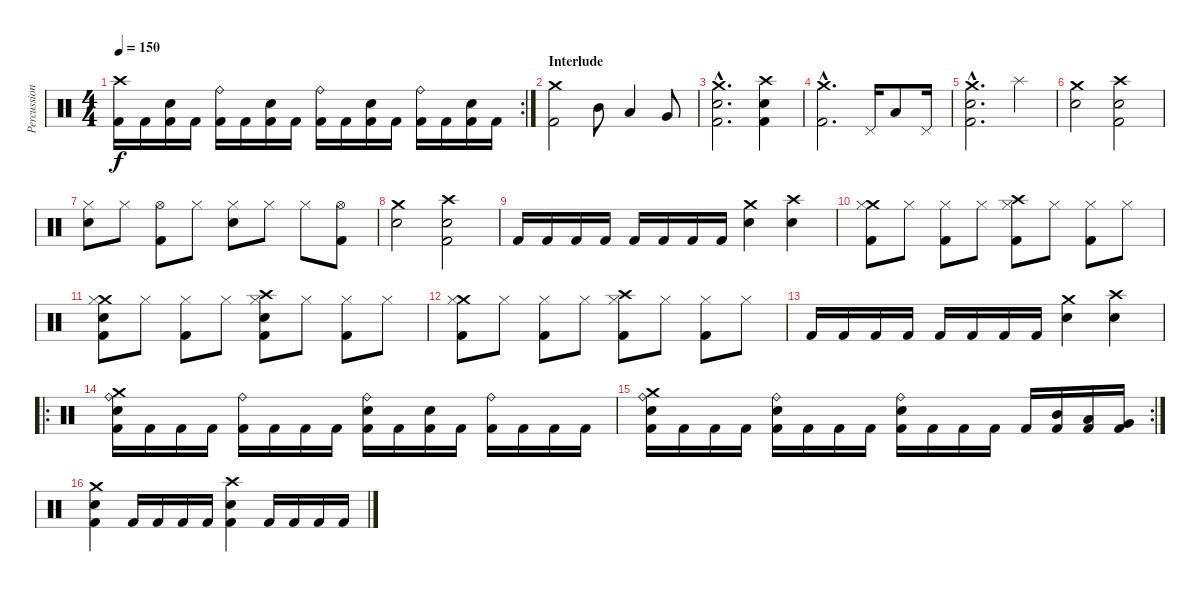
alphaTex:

\track ("Percussioni" "Percussion") {instrument percussion}
\staff {score}
\articulation defaults
\rc 2
\ts (4 4)
\tempo 150
\clef neutral
\ks c
("Crash high (hit)" "Kick (hit) 2").16{dy f} "Kick (hit) 2".16 ("Snare (hit) 2" "Kick (hit) 2").16 "Kick (hit) 2".16 ("Kick (hit) 2" "Ride (bell)").16 "Kick (hit) 2".16 ("Snare (hit) 2" "Kick (hit) 2").16 "Kick (hit) 2".16 ("Kick (hit) 2" "Ride (bell)").16 "Kick (hit) 2".16 ("Snare (hit) 2" "Kick (hit) 2").16 "Kick (hit) 2".16 ("Kick (hit) 2" "Ride (bell)").16 "Kick (hit) 2".16 ("Snare (hit) 2" "Kick (hit) 2").16 "Kick (hit) 2".16 |
\section ("" "Interlude")
("Crash medium (hit)" "Kick (hit) 2").2 "Mid Tom (hit)".8 "Low Tom (hit)".4 "Very Low Tom (hit)".8 |
("Crash medium (hit)"{hac} "Snare (hit) 2"{hac} "Kick (hit) 2"{hac}).2{d} ("Crash high (hit)" "Snare (hit) 2" "Kick (hit) 2").4 |
("Crash medium (hit)"{hac} "Kick (hit) 2"{hac}).2{d} "Pedal Hi-Hat (hit)".16 "Low Tom (hit)".8 "Pedal Hi-Hat (hit)".16 |
("Crash medium (hit)"{hac} "Snare (hit) 2"{hac} "Kick (hit) 2"{hac}).2{d} "Splash (hit)".4 |
("Crash medium (hit)" "Snare (hit) 2").2 ("Crash high (hit)" "Snare (hit) 2" "Kick (hit) 2").2 |
("Snare (hit) 2" "Hi-Hat (closed)").8 "Hi-Hat (closed)".8 ("Kick (hit) 2" "Hi-Hat (open)").8 "Hi-Hat (closed)".8 ("Snare (hit) 2" "Hi-Hat (closed)").8 "Hi-Hat (closed)".8 "Hi-Hat (closed)".8 ("Kick (hit) 2" "Hi-Hat (open)").8 |
("Crash medium (hit)" "Snare (hit) 2").2 ("Crash high (hit)" "Snare (hit) 2" "Kick (hit) 2").2 |
"Kick (hit) 2".16 "Kick (hit) 2".16 "Kick (hit) 2".16 "Kick (hit) 2".16 "Kick (hit) 2".16 "Kick (hit) 2".16 "Kick (hit) 2".16 "Kick (hit) 2".16 ("Crash medium (hit)" "Snare (hit) 2").4 ("Crash high (hit)" "Snare (hit) 2").4 |
("Crash medium (hit)" "Kick (hit) 2" "Hi-Hat (closed)").8 "Hi-Hat (closed)".8 ("Kick (hit) 2" "Hi-Hat (closed)").8 "Hi-Hat (closed)".8 ("Crash high (hit)" "Kick (hit) 2" "Hi-Hat (closed)").8 "Hi-Hat (closed)".8 ("Kick (hit) 2" "Hi-Hat (closed)").8 "Hi-Hat (closed)".8 |
("Crash medium (hit)" "Snare (hit) 2" "Kick (hit) 2" "Hi-Hat (closed)").8 "Hi-Hat (closed)".8 ("Kick (hit) 2" "Hi-Hat (closed)").8 "Hi-Hat (closed)".8 ("Crash high (hit)" "Snare (hit) 2" "Kick (hit) 2" "Hi-Hat (closed)").8 "Hi-Hat (closed)".8 ("Kick (hit) 2" "Hi-Hat (closed)").8 "Hi-Hat (closed)".8 |
("Crash medium (hit)" "Kick (hit) 2" "Hi-Hat (closed)").8 "Hi-Hat (closed)".8 ("Kick (hit) 2" "Hi-Hat (closed)").8 "Hi-Hat (closed)".8 ("Crash high (hit)" "Kick (hit) 2" "Hi-Hat (closed)").8 "Hi-Hat (closed)".8 ("Kick (hit) 2" "Hi-Hat (closed)").8 "Hi-Hat (closed)".8 |
"Kick (hit) 2".16 "Kick (hit) 2".16 "Kick (hit) 2".16 "Kick (hit) 2".16 "Kick (hit) 2".16 "Kick (hit) 2".16 "Kick (hit) 2".16 "Kick (hit) 2".16 ("Crash medium (hit)" "Snare (hit) 2").4 ("Crash high (hit)" "Snare (hit) 2").4 |
\ro
("Crash medium (hit)" "Snare (hit) 2" "Kick (hit) 2" "Ride (bell)").16 "Kick (hit) 2".16 "Kick (hit) 2".16 "Kick (hit) 2".16 ("Kick (hit) 2" "Ride (bell)").16 "Kick (hit) 2".16 "Kick (hit) 2".16 "Kick (hit) 2".16 ("Snare (hit) 2" "Kick (hit) 2" "Ride (bell)").16 "Kick (hit) 2".16 ("Snare (hit) 2" "Kick (hit) 2").16 "Kick (hit) 2".16 ("Kick (hit) 2" "Ride (bell)").16 "Kick (hit) 2".16 "Kick (hit) 2".16 "Kick (hit) 2".16 |
\rc 2
("Crash medium (hit)" "Snare (hit) 2" "Kick (hit) 2" "Ride (bell)").16 "Kick (hit) 2".16 "Kick (hit) 2".16 "Kick (hit) 2".16 ("Snare (hit) 2" "Kick (hit) 2" "Ride (bell)").16 "Kick (hit) 2".16 "Kick (hit) 2".16 "Kick (hit) 2".16 ("Snare (hit) 2" "Kick (hit) 2" "Ride (bell)").16 "Kick (hit) 2".16 "Kick (hit) 2".16 "Kick (hit) 2".16 "Kick (hit) 2".16 ("Mid Tom (hit)" "Kick (hit) 2").16 ("Low Tom (hit)" "Kick (hit) 2").16 ("Very Low Tom (hit)" "Kick (hit) 2").16 |
("Crash medium (hit)" "Snare (hit) 2" "Kick (hit) 2").4 "Kick (hit) 2".16 "Kick (hit) 2".16 "Kick (hit) 2".16 "Kick (hit) 2".16 ("Crash high (hit)" "Snare (hit) 2" "Kick (hit) 2").4 "Kick (hit) 2".16 "Kick (hit) 2".16 "Kick (hit) 2".16 "Kick (hit) 2".16
